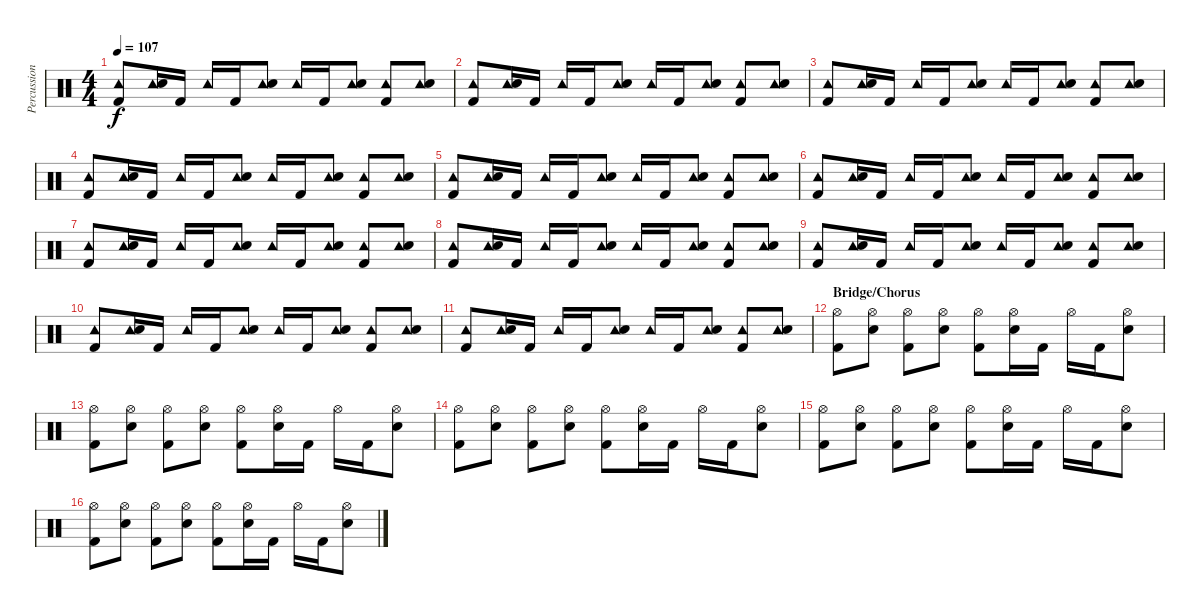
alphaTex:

\track ("Percussion" "Percussion") {instrument percussion}
\staff {score}
\articulation defaults
\ts (4 4)
\tempo 107
\clef neutral
\ks c
("Tambourine (hit)" "Kick (hit) 2").8{dy f} ("Tambourine (hit)" "Electric Snare (hit)").16 "Kick (hit) 2".16 "Tambourine (hit)".16 "Kick (hit) 2".16 ("Tambourine (hit)" "Electric Snare (hit)").8 "Tambourine (hit)".16 "Kick (hit) 2".16 ("Tambourine (hit)" "Electric Snare (hit)").8 ("Tambourine (hit)" "Kick (hit) 2").8 ("Tambourine (hit)" "Electric Snare (hit)").8 |
("Tambourine (hit)" "Kick (hit) 2").8 ("Tambourine (hit)" "Electric Snare (hit)").16 "Kick (hit) 2".16 "Tambourine (hit)".16 "Kick (hit) 2".16 ("Tambourine (hit)" "Electric Snare (hit)").8 "Tambourine (hit)".16 "Kick (hit) 2".16 ("Tambourine (hit)" "Electric Snare (hit)").8 ("Tambourine (hit)" "Kick (hit) 2").8 ("Tambourine (hit)" "Electric Snare (hit)").8 |
("Tambourine (hit)" "Kick (hit) 2").8 ("Tambourine (hit)" "Electric Snare (hit)").16 "Kick (hit) 2".16 "Tambourine (hit)".16 "Kick (hit) 2".16 ("Tambourine (hit)" "Electric Snare (hit)").8 "Tambourine (hit)".16 "Kick (hit) 2".16 ("Tambourine (hit)" "Electric Snare (hit)").8 ("Tambourine (hit)" "Kick (hit) 2").8 ("Tambourine (hit)" "Electric Snare (hit)").8 |
("Tambourine (hit)" "Kick (hit) 2").8 ("Tambourine (hit)" "Electric Snare (hit)").16 "Kick (hit) 2".16 "Tambourine (hit)".16 "Kick (hit) 2".16 ("Tambourine (hit)" "Electric Snare (hit)").8 "Tambourine (hit)".16 "Kick (hit) 2".16 ("Tambourine (hit)" "Electric Snare (hit)").8 ("Tambourine (hit)" "Kick (hit) 2").8 ("Tambourine (hit)" "Electric Snare (hit)").8 |
("Tambourine (hit)" "Kick (hit) 2").8 ("Tambourine (hit)" "Electric Snare (hit)").16 "Kick (hit) 2".16 "Tambourine (hit)".16 "Kick (hit) 2".16 ("Tambourine (hit)" "Electric Snare (hit)").8 "Tambourine (hit)".16 "Kick (hit) 2".16 ("Tambourine (hit)" "Electric Snare (hit)").8 ("Tambourine (hit)" "Kick (hit) 2").8 ("Tambourine (hit)" "Electric Snare (hit)").8 |
("Tambourine (hit)" "Kick (hit) 2").8 ("Tambourine (hit)" "Electric Snare (hit)").16 "Kick (hit) 2".16 "Tambourine (hit)".16 "Kick (hit) 2".16 ("Tambourine (hit)" "Electric Snare (hit)").8 "Tambourine (hit)".16 "Kick (hit) 2".16 ("Tambourine (hit)" "Electric Snare (hit)").8 ("Tambourine (hit)" "Kick (hit) 2").8 ("Tambourine (hit)" "Electric Snare (hit)").8 |
("Tambourine (hit)" "Kick (hit) 2").8 ("Tambourine (hit)" "Electric Snare (hit)").16 "Kick (hit) 2".16 "Tambourine (hit)".16 "Kick (hit) 2".16 ("Tambourine (hit)" "Electric Snare (hit)").8 "Tambourine (hit)".16 "Kick (hit) 2".16 ("Tambourine (hit)" "Electric Snare (hit)").8 ("Tambourine (hit)" "Kick (hit) 2").8 ("Tambourine (hit)" "Electric Snare (hit)").8 |
("Tambourine (hit)" "Kick (hit) 2").8 ("Tambourine (hit)" "Electric Snare (hit)").16 "Kick (hit) 2".16 "Tambourine (hit)".16 "Kick (hit) 2".16 ("Tambourine (hit)" "Electric Snare (hit)").8 "Tambourine (hit)".16 "Kick (hit) 2".16 ("Tambourine (hit)" "Electric Snare (hit)").8 ("Tambourine (hit)" "Kick (hit) 2").8 ("Tambourine (hit)" "Electric Snare (hit)").8 |
("Tambourine (hit)" "Kick (hit) 2").8 ("Tambourine (hit)" "Electric Snare (hit)").16 "Kick (hit) 2".16 "Tambourine (hit)".16 "Kick (hit) 2".16 ("Tambourine (hit)" "Electric Snare (hit)").8 "Tambourine (hit)".16 "Kick (hit) 2".16 ("Tambourine (hit)" "Electric Snare (hit)").8 ("Tambourine (hit)" "Kick (hit) 2").8 ("Tambourine (hit)" "Electric Snare (hit)").8 |
("Tambourine (hit)" "Kick (hit) 2").8 ("Tambourine (hit)" "Electric Snare (hit)").16 "Kick (hit) 2".16 "Tambourine (hit)".16 "Kick (hit) 2".16 ("Tambourine (hit)" "Electric Snare (hit)").8 "Tambourine (hit)".16 "Kick (hit) 2".16 ("Tambourine (hit)" "Electric Snare (hit)").8 ("Tambourine (hit)" "Kick (hit) 2").8 ("Tambourine (hit)" "Electric Snare (hit)").8 |
("Tambourine (hit)" "Kick (hit) 2").8 ("Tambourine (hit)" "Electric Snare (hit)").16 "Kick (hit) 2".16 "Tambourine (hit)".16 "Kick (hit) 2".16 ("Tambourine (hit)" "Electric Snare (hit)").8 "Tambourine (hit)".16 "Kick (hit) 2".16 ("Tambourine (hit)" "Electric Snare (hit)").8 ("Tambourine (hit)" "Kick (hit) 2").8 ("Tambourine (hit)" "Electric Snare (hit)").8 |
\section ("" "Bridge/Chorus")
("Hi-Hat (open)" "Kick (hit) 2").8 ("Hi-Hat (open)" "Electric Snare (hit)").8 ("Hi-Hat (open)" "Kick (hit) 2").8 ("Hi-Hat (open)" "Electric Snare (hit)").8 ("Hi-Hat (open)" "Kick (hit) 2").8 ("Hi-Hat (open)" "Electric Snare (hit)").16 "Kick (hit) 2".16 "Hi-Hat (open)".16 "Kick (hit) 2".16 ("Hi-Hat (open)" "Electric Snare (hit)").8 |
("Hi-Hat (open)" "Kick (hit) 2").8 ("Hi-Hat (open)" "Electric Snare (hit)").8 ("Hi-Hat (open)" "Kick (hit) 2").8 ("Hi-Hat (open)" "Electric Snare (hit)").8 ("Hi-Hat (open)" "Kick (hit) 2").8 ("Hi-Hat (open)" "Electric Snare (hit)").16 "Kick (hit) 2".16 "Hi-Hat (open)".16 "Kick (hit) 2".16 ("Hi-Hat (open)" "Electric Snare (hit)").8 |
("Hi-Hat (open)" "Kick (hit) 2").8 ("Hi-Hat (open)" "Electric Snare (hit)").8 ("Hi-Hat (open)" "Kick (hit) 2").8 ("Hi-Hat (open)" "Electric Snare (hit)").8 ("Hi-Hat (open)" "Kick (hit) 2").8 ("Hi-Hat (open)" "Electric Snare (hit)").16 "Kick (hit) 2".16 "Hi-Hat (open)".16 "Kick (hit) 2".16 ("Hi-Hat (open)" "Electric Snare (hit)").8 |
("Hi-Hat (open)" "Kick (hit) 2").8 ("Hi-Hat (open)" "Electric Snare (hit)").8 ("Hi-Hat (open)" "Kick (hit) 2").8 ("Hi-Hat (open)" "Electric Snare (hit)").8 ("Hi-Hat (open)" "Kick (hit) 2").8 ("Hi-Hat (open)" "Electric Snare (hit)").16 "Kick (hit) 2".16 "Hi-Hat (open)".16 "Kick (hit) 2".16 ("Hi-Hat (open)" "Electric Snare (hit)").8 |
("Hi-Hat (open)" "Kick (hit) 2").8 ("Hi-Hat (open)" "Electric Snare (hit)").8 ("Hi-Hat (open)" "Kick (hit) 2").8 ("Hi-Hat (open)" "Electric Snare (hit)").8 ("Hi-Hat (open)" "Kick (hit) 2").8 ("Hi-Hat (open)" "Electric Snare (hit)").16 "Kick (hit) 2".16 "Hi-Hat (open)".16 "Kick (hit) 2".16 ("Hi-Hat (open)" "Electric Snare (hit)").8
